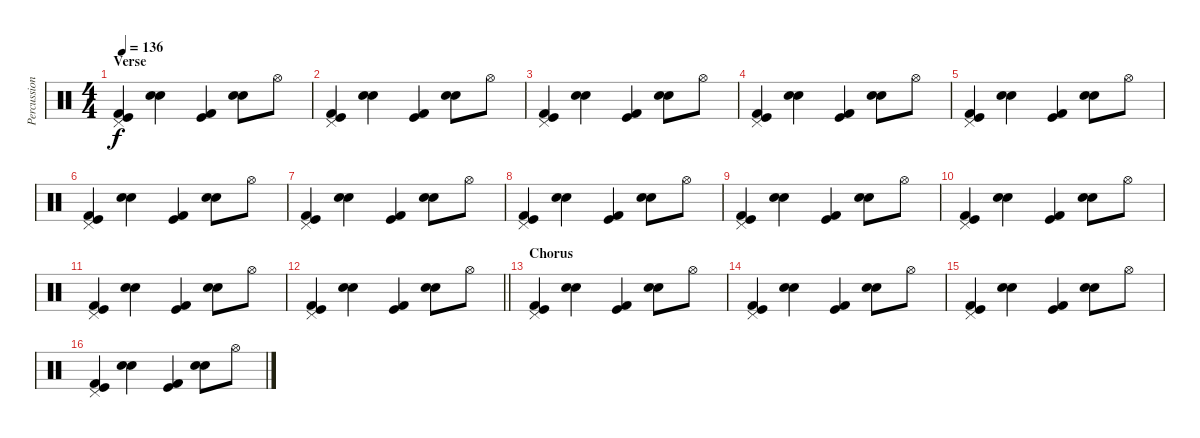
\track ("Percussion" "Percussion") {instrument percussion}
\staff {score}
\articulation defaults
\ts (4 4)
\section ("" "Verse")
\tempo 136
\clef neutral
\ks c
("Pedal Hi-Hat (hit)" "Kick (hit)" "Kick (hit) 2").4{dy f} ("Snare (hit) 2" "Electric Snare (hit)").4 ("Kick (hit)" "Kick (hit) 2").4 ("Snare (hit) 2" "Electric Snare (hit)").8 "Hi-Hat (open)".8 |
("Pedal Hi-Hat (hit)" "Kick (hit)" "Kick (hit) 2").4 ("Snare (hit) 2" "Electric Snare (hit)").4 ("Kick (hit)" "Kick (hit) 2").4 ("Snare (hit) 2" "Electric Snare (hit)").8 "Hi-Hat (open)".8 |
("Pedal Hi-Hat (hit)" "Kick (hit)" "Kick (hit) 2").4 ("Snare (hit) 2" "Electric Snare (hit)").4 ("Kick (hit)" "Kick (hit) 2").4 ("Snare (hit) 2" "Electric Snare (hit)").8 "Hi-Hat (open)".8 |
("Pedal Hi-Hat (hit)" "Kick (hit)" "Kick (hit) 2").4 ("Snare (hit) 2" "Electric Snare (hit)").4 ("Kick (hit)" "Kick (hit) 2").4 ("Snare (hit) 2" "Electric Snare (hit)").8 "Hi-Hat (open)".8 |
("Pedal Hi-Hat (hit)" "Kick (hit)" "Kick (hit) 2").4 ("Snare (hit) 2" "Electric Snare (hit)").4 ("Kick (hit)" "Kick (hit) 2").4 ("Snare (hit) 2" "Electric Snare (hit)").8 "Hi-Hat (open)".8 |
("Pedal Hi-Hat (hit)" "Kick (hit)" "Kick (hit) 2").4 ("Snare (hit) 2" "Electric Snare (hit)").4 ("Kick (hit)" "Kick (hit) 2").4 ("Snare (hit) 2" "Electric Snare (hit)").8 "Hi-Hat (open)".8 |
("Pedal Hi-Hat (hit)" "Kick (hit)" "Kick (hit) 2").4 ("Snare (hit) 2" "Electric Snare (hit)").4 ("Kick (hit)" "Kick (hit) 2").4 ("Snare (hit) 2" "Electric Snare (hit)").8 "Hi-Hat (open)".8 |
("Pedal Hi-Hat (hit)" "Kick (hit)" "Kick (hit) 2").4 ("Snare (hit) 2" "Electric Snare (hit)").4 ("Kick (hit)" "Kick (hit) 2").4 ("Snare (hit) 2" "Electric Snare (hit)").8 "Hi-Hat (open)".8 |
("Pedal Hi-Hat (hit)" "Kick (hit)" "Kick (hit) 2").4 ("Snare (hit) 2" "Electric Snare (hit)").4 ("Kick (hit)" "Kick (hit) 2").4 ("Snare (hit) 2" "Electric Snare (hit)").8 "Hi-Hat (open)".8 |
("Pedal Hi-Hat (hit)" "Kick (hit)" "Kick (hit) 2").4 ("Snare (hit) 2" "Electric Snare (hit)").4 ("Kick (hit)" "Kick (hit) 2").4 ("Snare (hit) 2" "Electric Snare (hit)").8 "Hi-Hat (open)".8 |
("Pedal Hi-Hat (hit)" "Kick (hit)" "Kick (hit) 2").4 ("Snare (hit) 2" "Electric Snare (hit)").4 ("Kick (hit)" "Kick (hit) 2").4 ("Snare (hit) 2" "Electric Snare (hit)").8 "Hi-Hat (open)".8 |
\barLineRight lightlight
("Pedal Hi-Hat (hit)" "Kick (hit)" "Kick (hit) 2").4 ("Snare (hit) 2" "Electric Snare (hit)").4 ("Kick (hit)" "Kick (hit) 2").4 ("Snare (hit) 2" "Electric Snare (hit)").8 "Hi-Hat (open)".8 |
\section ("" "Chorus")
("Pedal Hi-Hat (hit)" "Kick (hit)" "Kick (hit) 2").4 ("Snare (hit) 2" "Electric Snare (hit)").4 ("Kick (hit)" "Kick (hit) 2").4 ("Snare (hit) 2" "Electric Snare (hit)").8 "Hi-Hat (open)".8 |
("Pedal Hi-Hat (hit)" "Kick (hit)" "Kick (hit) 2").4 ("Snare (hit) 2" "Electric Snare (hit)").4 ("Kick (hit)" "Kick (hit) 2").4 ("Snare (hit) 2" "Electric Snare (hit)").8 "Hi-Hat (open)".8 |
("Pedal Hi-Hat (hit)" "Kick (hit)" "Kick (hit) 2").4 ("Snare (hit) 2" "Electric Snare (hit)").4 ("Kick (hit)" "Kick (hit) 2").4 ("Snare (hit) 2" "Electric Snare (hit)").8 "Hi-Hat (open)".8 |
("Pedal Hi-Hat (hit)" "Kick (hit)" "Kick (hit) 2").4 ("Snare (hit) 2" "Electric Snare (hit)").4 ("Kick (hit)" "Kick (hit) 2").4 ("Snare (hit) 2" "Electric Snare (hit)").8 "Hi-Hat (open)".8
